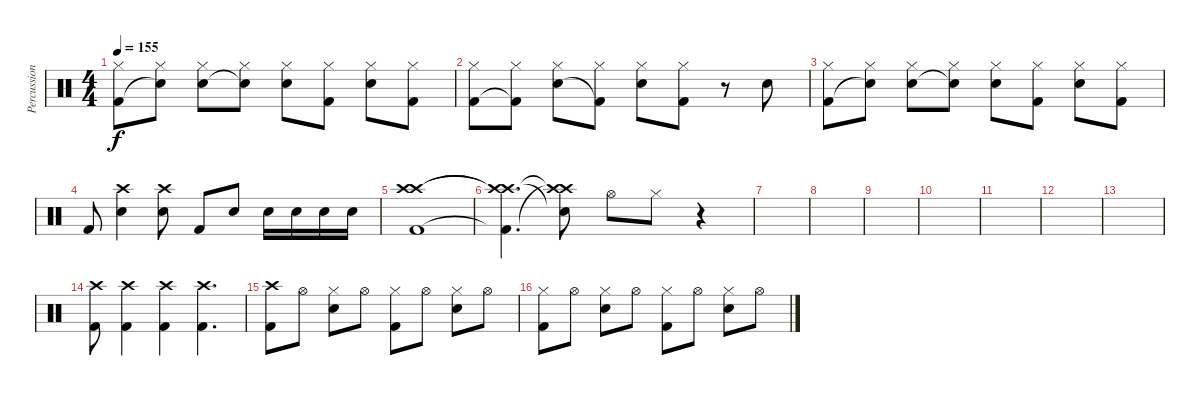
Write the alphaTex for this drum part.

\track ("Percussion" "Percussion") {instrument percussion}
\staff {score}
\articulation defaults
\ts (4 4)
\tempo 155
\clef neutral
\ks c
("Kick (hit) 2" "Hi-Hat (closed)").8{dy f} ("Electric Snare (hit)"{t} "Hi-Hat (closed)").8 ("Electric Snare (hit)" "Hi-Hat (closed)").8 ("Electric Snare (hit)"{t} "Hi-Hat (closed)").8 ("Electric Snare (hit)" "Hi-Hat (closed)").8 ("Kick (hit) 2" "Hi-Hat (closed)").8 ("Electric Snare (hit)" "Hi-Hat (closed)").8 ("Kick (hit) 2" "Hi-Hat (closed)").8 |
("Kick (hit) 2" "Hi-Hat (closed)").8 ("Kick (hit) 2"{t} "Hi-Hat (closed)").8 ("Electric Snare (hit)" "Hi-Hat (closed)").8 ("Kick (hit) 2"{t} "Hi-Hat (closed)").8 ("Electric Snare (hit)" "Hi-Hat (closed)").8 ("Kick (hit) 2" "Hi-Hat (closed)").8 r.8 "Electric Snare (hit)".8 |
("Kick (hit) 2" "Hi-Hat (closed)").8 ("Electric Snare (hit)"{t} "Hi-Hat (closed)").8 ("Electric Snare (hit)" "Hi-Hat (closed)").8 ("Electric Snare (hit)"{t} "Hi-Hat (closed)").8 ("Electric Snare (hit)" "Hi-Hat (closed)").8 ("Kick (hit) 2" "Hi-Hat (closed)").8 ("Electric Snare (hit)" "Hi-Hat (closed)").8 ("Kick (hit) 2" "Hi-Hat (closed)").8 |
"Kick (hit) 2".8 ("Crash high (hit)" "Electric Snare (hit)").4 ("Crash high (hit)" "Electric Snare (hit)").8 "Kick (hit) 2".8 "Electric Snare (hit)".8 "Electric Snare (hit)".16 "Electric Snare (hit)".16 "Electric Snare (hit)".16 "Electric Snare (hit)".16 |
("Crash high (hit)" "Kick (hit) 2" "Crash high (hit)").1 |
("Crash high (hit)"{t} "Kick (hit) 2"{t} "Crash high (hit)"{t}).4{d} ("Snare (hit)"{t} "Crash high (hit)"{t} "Crash high (hit)"{t}).8 "Hi-Hat (open)".8 "Hi-Hat (closed)".8 r.4 |
|
|
|
|
|
|
|
("Crash high (hit)" "Kick (hit) 2").8 ("Crash high (hit)" "Kick (hit) 2").4 ("Crash high (hit)" "Kick (hit) 2").4 ("Crash high (hit)" "Kick (hit) 2").4{d} |
("Crash high (hit)" "Kick (hit) 2").8 "Hi-Hat (open)".8 ("Hi-Hat (closed)" "Electric Snare (hit)").8 "Hi-Hat (open)".8 ("Hi-Hat (closed)" "Kick (hit) 2").8 "Hi-Hat (open)".8 ("Hi-Hat (closed)" "Electric Snare (hit)").8 "Hi-Hat (open)".8 |
("Hi-Hat (closed)" "Kick (hit) 2").8 "Hi-Hat (open)".8 ("Hi-Hat (closed)" "Electric Snare (hit)").8 "Hi-Hat (open)".8 ("Hi-Hat (closed)" "Kick (hit) 2").8 "Hi-Hat (open)".8 ("Hi-Hat (closed)" "Electric Snare (hit)").8 "Hi-Hat (open)".8
